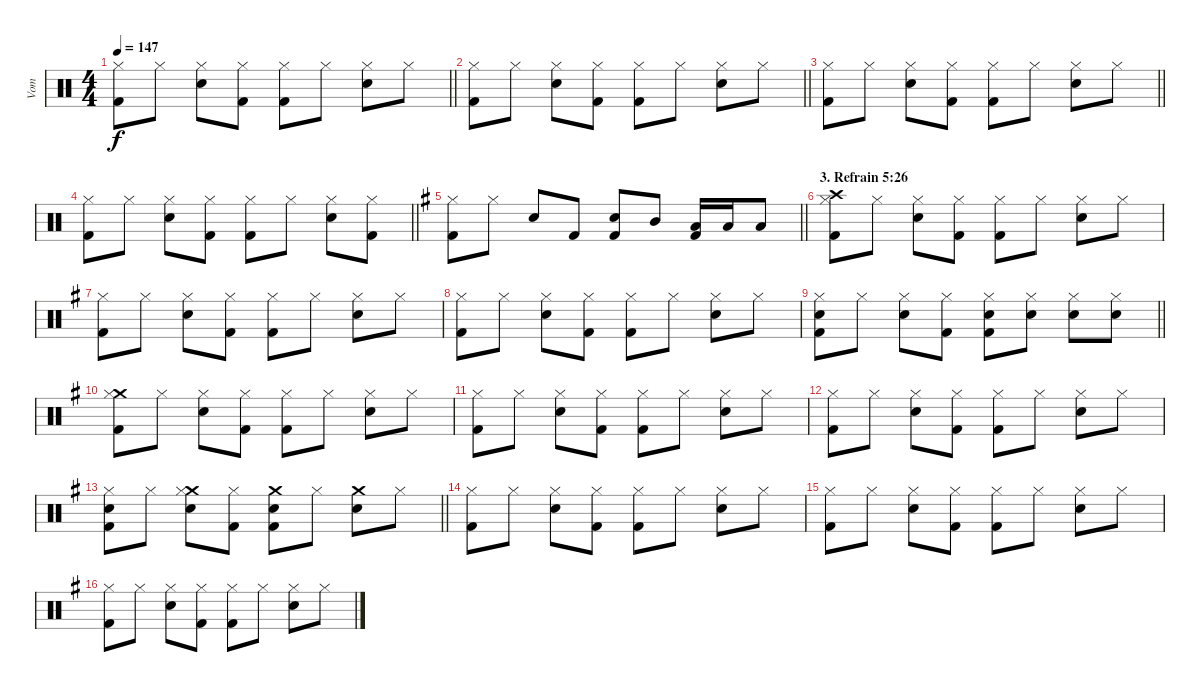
\track ("Vom" "Vom") {instrument percussion}
\staff {score}
\articulation defaults
\ts (4 4)
\tempo 147
\clef neutral
\barLineRight lightlight
\ks c
("Hi-Hat (closed)" "Kick (hit) 2").8{dy f} "Hi-Hat (closed)".8 ("Hi-Hat (closed)" "Snare (hit) 2").8 ("Hi-Hat (closed)" "Kick (hit) 2").8 ("Hi-Hat (closed)" "Kick (hit) 2").8 "Hi-Hat (closed)".8 ("Hi-Hat (closed)" "Snare (hit) 2").8 "Hi-Hat (closed)".8 |
\barLineRight lightlight
("Hi-Hat (closed)" "Kick (hit) 2").8 "Hi-Hat (closed)".8 ("Hi-Hat (closed)" "Snare (hit) 2").8 ("Hi-Hat (closed)" "Kick (hit) 2").8 ("Hi-Hat (closed)" "Kick (hit) 2").8 "Hi-Hat (closed)".8 ("Hi-Hat (closed)" "Snare (hit) 2").8 "Hi-Hat (closed)".8 |
\barLineRight lightlight
("Hi-Hat (closed)" "Kick (hit) 2").8 "Hi-Hat (closed)".8 ("Hi-Hat (closed)" "Snare (hit) 2").8 ("Hi-Hat (closed)" "Kick (hit) 2").8 ("Hi-Hat (closed)" "Kick (hit) 2").8 "Hi-Hat (closed)".8 ("Hi-Hat (closed)" "Snare (hit) 2").8 "Hi-Hat (closed)".8 |
\barLineRight lightlight
("Hi-Hat (closed)" "Kick (hit) 2").8 "Hi-Hat (closed)".8 ("Hi-Hat (closed)" "Snare (hit) 2").8 ("Hi-Hat (closed)" "Kick (hit) 2").8 ("Hi-Hat (closed)" "Kick (hit) 2").8 "Hi-Hat (closed)".8 ("Hi-Hat (closed)" "Snare (hit) 2").8 ("Hi-Hat (closed)" "Kick (hit) 2").8 |
\barLineRight lightlight
\ks g
("Hi-Hat (closed)" "Kick (hit) 2").8 "Hi-Hat (closed)".8 "Snare (hit) 2".8 "Kick (hit) 2".8 ("Snare (hit) 2" "Kick (hit) 2").8 "Mid Tom (hit)".8 ("Low Tom (hit)" "Kick (hit) 2").16 "Low Tom (hit)".16 "Low Tom (hit)".8 |
\section ("" "3. Refrain 5:26")
("Crash high (hit)" "Hi-Hat (closed)" "Kick (hit) 2").8 "Hi-Hat (closed)".8 ("Hi-Hat (closed)" "Snare (hit) 2").8 ("Hi-Hat (closed)" "Kick (hit) 2").8 ("Hi-Hat (closed)" "Kick (hit) 2").8 "Hi-Hat (closed)".8 ("Hi-Hat (closed)" "Snare (hit) 2").8 "Hi-Hat (closed)".8 |
("Hi-Hat (closed)" "Kick (hit) 2").8 "Hi-Hat (closed)".8 ("Hi-Hat (closed)" "Snare (hit) 2").8 ("Hi-Hat (closed)" "Kick (hit) 2").8 ("Hi-Hat (closed)" "Kick (hit) 2").8 "Hi-Hat (closed)".8 ("Hi-Hat (closed)" "Snare (hit) 2").8 "Hi-Hat (closed)".8 |
("Hi-Hat (closed)" "Kick (hit) 2").8 "Hi-Hat (closed)".8 ("Hi-Hat (closed)" "Snare (hit) 2").8 ("Hi-Hat (closed)" "Kick (hit) 2").8 ("Hi-Hat (closed)" "Kick (hit) 2").8 "Hi-Hat (closed)".8 ("Hi-Hat (closed)" "Snare (hit) 2").8 "Hi-Hat (closed)".8 |
\barLineRight lightlight
("Hi-Hat (closed)" "Snare (hit) 2" "Kick (hit) 2").8 "Hi-Hat (closed)".8 ("Hi-Hat (closed)" "Snare (hit) 2").8 ("Hi-Hat (closed)" "Kick (hit) 2").8 ("Hi-Hat (closed)" "Snare (hit) 2" "Kick (hit) 2").8 ("Hi-Hat (closed)" "Snare (hit) 2").8 ("Hi-Hat (closed)" "Snare (hit) 2").8 ("Hi-Hat (closed)" "Snare (hit) 2").8 |
("Crash medium (hit)" "Hi-Hat (closed)" "Kick (hit) 2").8 "Hi-Hat (closed)".8 ("Hi-Hat (closed)" "Snare (hit) 2").8 ("Hi-Hat (closed)" "Kick (hit) 2").8 ("Hi-Hat (closed)" "Kick (hit) 2").8 "Hi-Hat (closed)".8 ("Hi-Hat (closed)" "Snare (hit) 2").8 "Hi-Hat (closed)".8 |
("Hi-Hat (closed)" "Kick (hit) 2").8 "Hi-Hat (closed)".8 ("Hi-Hat (closed)" "Snare (hit) 2").8 ("Hi-Hat (closed)" "Kick (hit) 2").8 ("Hi-Hat (closed)" "Kick (hit) 2").8 "Hi-Hat (closed)".8 ("Hi-Hat (closed)" "Snare (hit) 2").8 "Hi-Hat (closed)".8 |
("Hi-Hat (closed)" "Kick (hit) 2").8 "Hi-Hat (closed)".8 ("Hi-Hat (closed)" "Snare (hit) 2").8 ("Hi-Hat (closed)" "Kick (hit) 2").8 ("Hi-Hat (closed)" "Kick (hit) 2").8 "Hi-Hat (closed)".8 ("Hi-Hat (closed)" "Snare (hit) 2").8 "Hi-Hat (closed)".8 |
\barLineRight lightlight
("Hi-Hat (closed)" "Snare (hit) 2" "Kick (hit) 2").8 "Hi-Hat (closed)".8 ("Crash medium (hit)" "Hi-Hat (closed)" "Snare (hit) 2").8 ("Hi-Hat (closed)" "Kick (hit) 2").8 ("Crash medium (hit)" "Snare (hit) 2" "Kick (hit) 2").8 "Hi-Hat (closed)".8 ("Crash medium (hit)" "Snare (hit) 2").8 "Hi-Hat (closed)".8 |
("Hi-Hat (closed)" "Kick (hit) 2").8 "Hi-Hat (closed)".8 ("Hi-Hat (closed)" "Snare (hit) 2").8 ("Hi-Hat (closed)" "Kick (hit) 2").8 ("Hi-Hat (closed)" "Kick (hit) 2").8 "Hi-Hat (closed)".8 ("Hi-Hat (closed)" "Snare (hit) 2").8 "Hi-Hat (closed)".8 |
("Hi-Hat (closed)" "Kick (hit) 2").8 "Hi-Hat (closed)".8 ("Hi-Hat (closed)" "Snare (hit) 2").8 ("Hi-Hat (closed)" "Kick (hit) 2").8 ("Hi-Hat (closed)" "Kick (hit) 2").8 "Hi-Hat (closed)".8 ("Hi-Hat (closed)" "Snare (hit) 2").8 "Hi-Hat (closed)".8 |
("Hi-Hat (closed)" "Kick (hit) 2").8 "Hi-Hat (closed)".8 ("Hi-Hat (closed)" "Snare (hit) 2").8 ("Hi-Hat (closed)" "Kick (hit) 2").8 ("Hi-Hat (closed)" "Kick (hit) 2").8 "Hi-Hat (closed)".8 ("Hi-Hat (closed)" "Snare (hit) 2").8 "Hi-Hat (closed)".8
